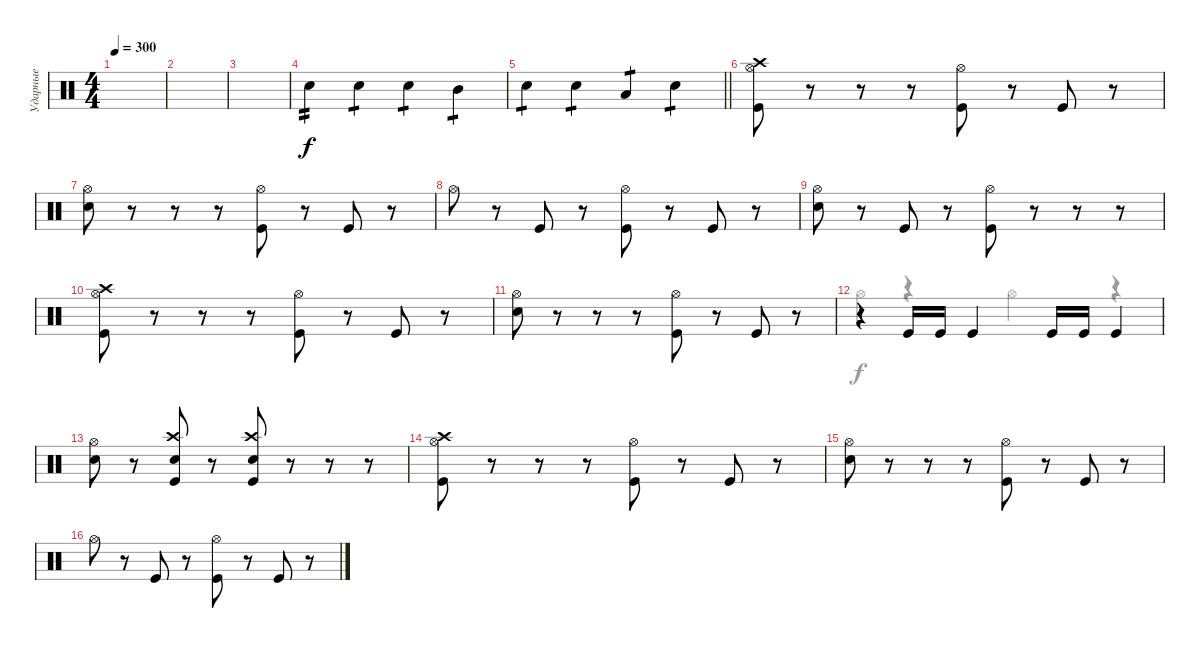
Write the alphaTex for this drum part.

\track ("Ударные" "Ударные") {instrument percussion}
\staff {score}
\articulation defaults
\voice
\ts (4 4)
\tempo 300
\clef neutral
\ks c
|
|
|
"Electric Snare (hit)".4{tp 2} "Electric Snare (hit)".4{tp 1} "Electric Snare (hit)".4{tp 1} "Mid Tom (hit)".4{tp 1} |
\barLineRight lightlight "Electric Snare (hit)".4{tp 1} "Electric Snare (hit)".4{tp 1} "Low Tom (hit)".4{tp 1} "Electric Snare (hit)".4{tp 1}
|
("Crash high (hit)" "Hi-Hat (open)" "Kick (hit)").8 r.8 r.8 r.8 ("Hi-Hat (open)" "Kick (hit)").8 r.8 "Kick (hit)".8 r.8 |
("Hi-Hat (open)" "Electric Snare (hit)").8 r.8 r.8 r.8 ("Hi-Hat (open)" "Kick (hit)").8 r.8 "Kick (hit)".8 r.8 |
"Hi-Hat (open)".8 r.8 "Kick (hit)".8 r.8 ("Hi-Hat (open)" "Kick (hit)").8 r.8 "Kick (hit)".8 r.8 |
("Hi-Hat (open)" "Electric Snare (hit)").8 r.8 "Kick (hit)".8 r.8 ("Hi-Hat (open)" "Kick (hit)").8 r.8 r.8 r.8 |
("Crash high (hit)" "Hi-Hat (open)" "Kick (hit)").8 r.8 r.8 r.8 ("Hi-Hat (open)" "Kick (hit)").8 r.8 "Kick (hit)".8 r.8 |
("Hi-Hat (open)" "Electric Snare (hit)").8 r.8 r.8 r.8 ("Hi-Hat (open)" "Kick (hit)").8 r.8 "Kick (hit)".8 r.8 |
r.4 "Kick (hit)".16 "Kick (hit)".16 "Kick (hit)".4 "Kick (hit)".16 "Kick (hit)".16 "Kick (hit)".4 |
("Hi-Hat (open)" "Electric Snare (hit)").8 r.8 ("Crash high (hit)" "Electric Snare (hit)" "Kick (hit)").8 r.8 ("Crash high (hit)" "Electric Snare (hit)" "Kick (hit)").8 r.8 r.8 r.8 |
("Crash high (hit)" "Hi-Hat (open)" "Kick (hit)").8 r.8 r.8 r.8 ("Hi-Hat (open)" "Kick (hit)").8 r.8 "Kick (hit)".8 r.8 |
("Hi-Hat (open)" "Electric Snare (hit)").8 r.8 r.8 r.8 ("Hi-Hat (open)" "Kick (hit)").8 r.8 "Kick (hit)".8 r.8 |
"Hi-Hat (open)".8 r.8 "Kick (hit)".8 r.8 ("Hi-Hat (open)" "Kick (hit)").8 r.8 "Kick (hit)".8 r.8
\voice
\clef neutral
\ottava regular
\simile none
\ks c
|
|
|
|
\barLineRight lightlight
|
|
|
|
|
|
|
"Hi-Hat (open)".4 r.4 "Hi-Hat (open)".4 r.4 |
|
|
|
